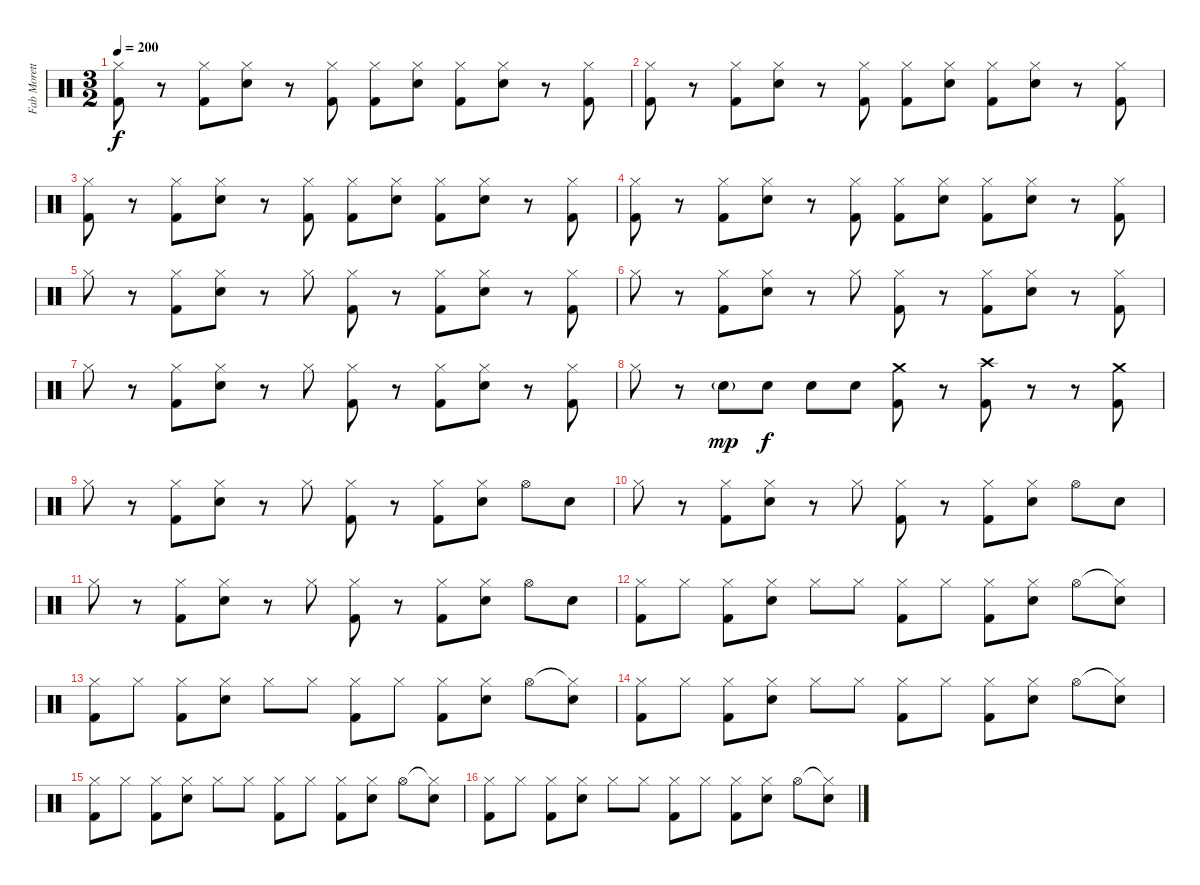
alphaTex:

\track ("Fab Moretti" "Fab Morett") {instrument percussion}
\staff {score}
\articulation defaults
\ts (3 2)
\tempo 200
\clef neutral
\ks c
("Hi-Hat (closed)" "Kick (hit) 2").8{dy f} r.8 ("Hi-Hat (closed)" "Kick (hit) 2").8 ("Hi-Hat (closed)" "Snare (hit) 2").8 r.8 ("Hi-Hat (closed)" "Kick (hit) 2").8 ("Hi-Hat (closed)" "Kick (hit) 2").8 ("Hi-Hat (closed)" "Snare (hit) 2").8 ("Hi-Hat (closed)" "Kick (hit) 2").8 ("Hi-Hat (closed)" "Snare (hit) 2").8 r.8 ("Hi-Hat (closed)" "Kick (hit) 2").8 |
("Hi-Hat (closed)" "Kick (hit) 2").8 r.8 ("Hi-Hat (closed)" "Kick (hit) 2").8 ("Hi-Hat (closed)" "Snare (hit) 2").8 r.8 ("Hi-Hat (closed)" "Kick (hit) 2").8 ("Hi-Hat (closed)" "Kick (hit) 2").8 ("Hi-Hat (closed)" "Snare (hit) 2").8 ("Hi-Hat (closed)" "Kick (hit) 2").8 ("Hi-Hat (closed)" "Snare (hit) 2").8 r.8 ("Hi-Hat (closed)" "Kick (hit) 2").8 |
("Hi-Hat (closed)" "Kick (hit) 2").8 r.8 ("Hi-Hat (closed)" "Kick (hit) 2").8 ("Hi-Hat (closed)" "Snare (hit) 2").8 r.8 ("Hi-Hat (closed)" "Kick (hit) 2").8 ("Hi-Hat (closed)" "Kick (hit) 2").8 ("Hi-Hat (closed)" "Snare (hit) 2").8 ("Hi-Hat (closed)" "Kick (hit) 2").8 ("Hi-Hat (closed)" "Snare (hit) 2").8 r.8 ("Hi-Hat (closed)" "Kick (hit) 2").8 |
("Hi-Hat (closed)" "Kick (hit) 2").8 r.8 ("Hi-Hat (closed)" "Kick (hit) 2").8 ("Hi-Hat (closed)" "Snare (hit) 2").8 r.8 ("Hi-Hat (closed)" "Kick (hit) 2").8 ("Hi-Hat (closed)" "Kick (hit) 2").8 ("Hi-Hat (closed)" "Snare (hit) 2").8 ("Hi-Hat (closed)" "Kick (hit) 2").8 ("Hi-Hat (closed)" "Snare (hit) 2").8 r.8 ("Hi-Hat (closed)" "Kick (hit) 2").8 |
"Hi-Hat (closed)".8 r.8 ("Hi-Hat (closed)" "Kick (hit) 2").8 ("Hi-Hat (closed)" "Snare (hit) 2").8 r.8 "Hi-Hat (closed)".8 ("Hi-Hat (closed)" "Kick (hit) 2").8 r.8 ("Hi-Hat (closed)" "Kick (hit) 2").8 ("Hi-Hat (closed)" "Snare (hit) 2").8 r.8 ("Hi-Hat (closed)" "Kick (hit) 2").8 |
"Hi-Hat (closed)".8 r.8 ("Hi-Hat (closed)" "Kick (hit) 2").8 ("Hi-Hat (closed)" "Snare (hit) 2").8 r.8 "Hi-Hat (closed)".8 ("Hi-Hat (closed)" "Kick (hit) 2").8 r.8 ("Hi-Hat (closed)" "Kick (hit) 2").8 ("Hi-Hat (closed)" "Snare (hit) 2").8 r.8 ("Hi-Hat (closed)" "Kick (hit) 2").8 |
"Hi-Hat (closed)".8 r.8 ("Hi-Hat (closed)" "Kick (hit) 2").8 ("Hi-Hat (closed)" "Snare (hit) 2").8 r.8 "Hi-Hat (closed)".8 ("Hi-Hat (closed)" "Kick (hit) 2").8 r.8 ("Hi-Hat (closed)" "Kick (hit) 2").8 ("Hi-Hat (closed)" "Snare (hit) 2").8 r.8 ("Hi-Hat (closed)" "Kick (hit) 2").8 |
"Hi-Hat (closed)".8 r.8 "Snare (hit) 2"{g}.8{dy mp} "Snare (hit) 2".8{dy f} "Snare (hit) 2".8 "Snare (hit) 2".8 ("Crash medium (hit)" "Kick (hit) 2").8 r.8 ("Crash high (hit)" "Kick (hit) 2").8 r.8 r.8 ("Crash medium (hit)" "Kick (hit) 2").8 |
"Hi-Hat (closed)".8 r.8 ("Hi-Hat (closed)" "Kick (hit) 2").8 ("Hi-Hat (closed)" "Snare (hit) 2").8 r.8 "Hi-Hat (closed)".8 ("Hi-Hat (closed)" "Kick (hit) 2").8 r.8 ("Hi-Hat (closed)" "Kick (hit) 2").8 ("Hi-Hat (closed)" "Snare (hit) 2").8 "Hi-Hat (open)".8 "Snare (hit) 2".8 |
"Hi-Hat (closed)".8 r.8 ("Hi-Hat (closed)" "Kick (hit) 2").8 ("Hi-Hat (closed)" "Snare (hit) 2").8 r.8 "Hi-Hat (closed)".8 ("Hi-Hat (closed)" "Kick (hit) 2").8 r.8 ("Hi-Hat (closed)" "Kick (hit) 2").8 ("Hi-Hat (closed)" "Snare (hit) 2").8 "Hi-Hat (open)".8 "Snare (hit) 2".8 |
"Hi-Hat (closed)".8 r.8 ("Hi-Hat (closed)" "Kick (hit) 2").8 ("Hi-Hat (closed)" "Snare (hit) 2").8 r.8 "Hi-Hat (closed)".8 ("Hi-Hat (closed)" "Kick (hit) 2").8 r.8 ("Hi-Hat (closed)" "Kick (hit) 2").8 ("Hi-Hat (closed)" "Snare (hit) 2").8 "Hi-Hat (open)".8 "Snare (hit) 2".8 |
("Hi-Hat (closed)" "Kick (hit) 2").8 "Hi-Hat (closed)".8 ("Hi-Hat (closed)" "Kick (hit) 2").8 ("Hi-Hat (closed)" "Snare (hit) 2").8 "Hi-Hat (closed)".8 "Hi-Hat (closed)".8 ("Hi-Hat (closed)" "Kick (hit) 2").8 "Hi-Hat (closed)".8 ("Hi-Hat (closed)" "Kick (hit) 2").8 ("Hi-Hat (closed)" "Snare (hit) 2").8 "Hi-Hat (open)".8 ("Hi-Hat (closed)"{t} "Snare (hit) 2").8 |
("Hi-Hat (closed)" "Kick (hit) 2").8 "Hi-Hat (closed)".8 ("Hi-Hat (closed)" "Kick (hit) 2").8 ("Hi-Hat (closed)" "Snare (hit) 2").8 "Hi-Hat (closed)".8 "Hi-Hat (closed)".8 ("Hi-Hat (closed)" "Kick (hit) 2").8 "Hi-Hat (closed)".8 ("Hi-Hat (closed)" "Kick (hit) 2").8 ("Hi-Hat (closed)" "Snare (hit) 2").8 "Hi-Hat (open)".8 ("Hi-Hat (closed)"{t} "Snare (hit) 2").8 |
("Hi-Hat (closed)" "Kick (hit) 2").8 "Hi-Hat (closed)".8 ("Hi-Hat (closed)" "Kick (hit) 2").8 ("Hi-Hat (closed)" "Snare (hit) 2").8 "Hi-Hat (closed)".8 "Hi-Hat (closed)".8 ("Hi-Hat (closed)" "Kick (hit) 2").8 "Hi-Hat (closed)".8 ("Hi-Hat (closed)" "Kick (hit) 2").8 ("Hi-Hat (closed)" "Snare (hit) 2").8 "Hi-Hat (open)".8 ("Hi-Hat (closed)"{t} "Snare (hit) 2").8 |
("Hi-Hat (closed)" "Kick (hit) 2").8 "Hi-Hat (closed)".8 ("Hi-Hat (closed)" "Kick (hit) 2").8 ("Hi-Hat (closed)" "Snare (hit) 2").8 "Hi-Hat (closed)".8 "Hi-Hat (closed)".8 ("Hi-Hat (closed)" "Kick (hit) 2").8 "Hi-Hat (closed)".8 ("Hi-Hat (closed)" "Kick (hit) 2").8 ("Hi-Hat (closed)" "Snare (hit) 2").8 "Hi-Hat (open)".8 ("Hi-Hat (closed)"{t} "Snare (hit) 2").8 |
("Hi-Hat (closed)" "Kick (hit) 2").8 "Hi-Hat (closed)".8 ("Hi-Hat (closed)" "Kick (hit) 2").8 ("Hi-Hat (closed)" "Snare (hit) 2").8 "Hi-Hat (closed)".8 "Hi-Hat (closed)".8 ("Hi-Hat (closed)" "Kick (hit) 2").8 "Hi-Hat (closed)".8 ("Hi-Hat (closed)" "Kick (hit) 2").8 ("Hi-Hat (closed)" "Snare (hit) 2").8 "Hi-Hat (open)".8 ("Hi-Hat (closed)"{t} "Snare (hit) 2").8
